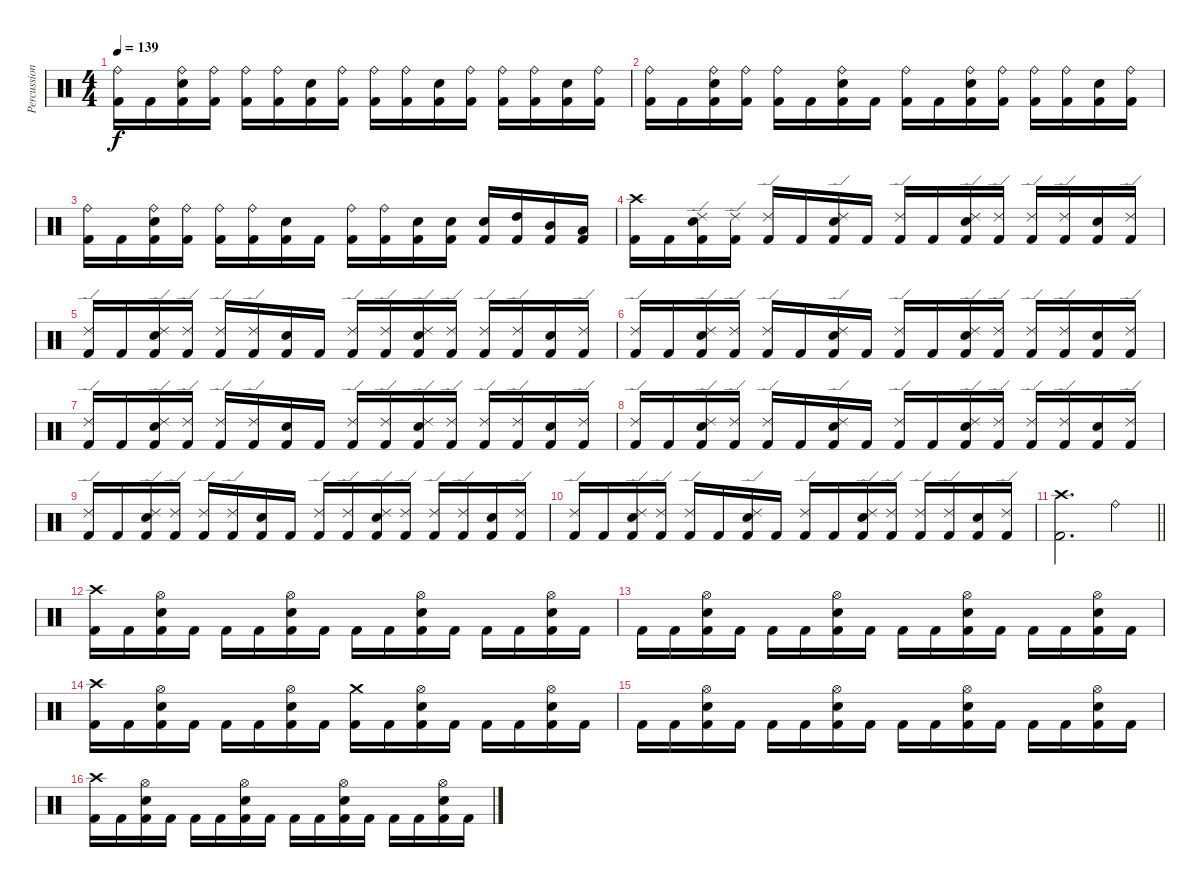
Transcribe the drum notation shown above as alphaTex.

\track ("Percussion" "Percussion") {instrument percussion}
\staff {score}
\articulation defaults
\ts (4 4)
\tempo 139
\clef neutral
\ks c
("Ride (bell)" "Kick (hit) 2").16{dy f} "Kick (hit) 2".16 ("Ride (bell)" "Electric Snare (hit)" "Kick (hit) 2").16 ("Ride (bell)" "Kick (hit) 2").16 ("Ride (bell)" "Kick (hit) 2").16 ("Ride (bell)" "Kick (hit) 2").16 ("Electric Snare (hit)" "Kick (hit) 2").16 ("Ride (bell)" "Kick (hit) 2").16 ("Ride (bell)" "Kick (hit) 2").16 ("Ride (bell)" "Kick (hit) 2").16 ("Electric Snare (hit)" "Kick (hit) 2").16 ("Ride (bell)" "Kick (hit) 2").16 ("Ride (bell)" "Kick (hit) 2").16 ("Ride (bell)" "Kick (hit) 2").16 ("Electric Snare (hit)" "Kick (hit) 2").16 ("Ride (bell)" "Kick (hit) 2").16 |
("Ride (bell)" "Kick (hit) 2").16 "Kick (hit) 2".16 ("Ride (bell)" "Electric Snare (hit)" "Kick (hit) 2").16 ("Ride (bell)" "Kick (hit) 2").16 ("Ride (bell)" "Kick (hit) 2").16 "Kick (hit) 2".16 ("Ride (bell)" "Electric Snare (hit)" "Kick (hit) 2").16 "Kick (hit) 2".16 ("Ride (bell)" "Kick (hit) 2").16 "Kick (hit) 2".16 ("Ride (bell)" "Electric Snare (hit)" "Kick (hit) 2").16 ("Ride (bell)" "Kick (hit) 2").16 ("Ride (bell)" "Kick (hit) 2").16 ("Ride (bell)" "Kick (hit) 2").16 ("Electric Snare (hit)" "Kick (hit) 2").16 ("Ride (bell)" "Kick (hit) 2").16 |
("Ride (bell)" "Kick (hit) 2").16 "Kick (hit) 2".16 ("Ride (bell)" "Electric Snare (hit)" "Kick (hit) 2").16 ("Ride (bell)" "Kick (hit) 2").16 ("Ride (bell)" "Kick (hit) 2").16 ("Ride (bell)" "Kick (hit) 2").16 ("Electric Snare (hit)" "Kick (hit) 2").16 "Kick (hit) 2".16 ("Ride (bell)" "Kick (hit) 2").16 ("Ride (bell)" "Kick (hit) 2").16 ("Electric Snare (hit)" "Kick (hit) 2").16 ("Electric Snare (hit)" "Kick (hit) 2").16 ("Electric Snare (hit)" "Kick (hit) 2").16 ("High Tom (hit)" "Kick (hit) 2").16 ("Mid Tom (hit)" "Kick (hit) 2").16 ("Low Tom (hit)" "Kick (hit) 2").16 |
("Crash high (hit)" "Kick (hit) 2").16 "Kick (hit) 2".16 ("Ride (edge) 2" "Electric Snare (hit)" "Kick (hit) 2").16 ("Ride (edge) 2" "Kick (hit) 2").16 ("Ride (edge) 2" "Kick (hit) 2").16 "Kick (hit) 2".16 ("Ride (edge) 2" "Electric Snare (hit)" "Kick (hit) 2").16 "Kick (hit) 2".16 ("Ride (edge) 2" "Kick (hit) 2").16 "Kick (hit) 2".16 ("Ride (edge) 2" "Electric Snare (hit)" "Kick (hit) 2").16 ("Ride (edge) 2" "Kick (hit) 2").16 ("Ride (edge) 2" "Kick (hit) 2").16 ("Ride (edge) 2" "Kick (hit) 2").16 ("Electric Snare (hit)" "Kick (hit) 2").16 ("Ride (edge) 2" "Kick (hit) 2").16 |
("Ride (edge) 2" "Kick (hit) 2").16 "Kick (hit) 2".16 ("Ride (edge) 2" "Electric Snare (hit)" "Kick (hit) 2").16 ("Ride (edge) 2" "Kick (hit) 2").16 ("Ride (edge) 2" "Kick (hit) 2").16 ("Ride (edge) 2" "Kick (hit) 2").16 ("Electric Snare (hit)" "Kick (hit) 2").16 "Kick (hit) 2".16 ("Ride (edge) 2" "Kick (hit) 2").16 ("Ride (edge) 2" "Kick (hit) 2").16 ("Ride (edge) 2" "Electric Snare (hit)" "Kick (hit) 2").16 ("Ride (edge) 2" "Kick (hit) 2").16 ("Ride (edge) 2" "Kick (hit) 2").16 ("Ride (edge) 2" "Kick (hit) 2").16 ("Electric Snare (hit)" "Kick (hit) 2").16 ("Ride (edge) 2" "Kick (hit) 2").16 |
("Ride (edge) 2" "Kick (hit) 2").16 "Kick (hit) 2".16 ("Ride (edge) 2" "Electric Snare (hit)" "Kick (hit) 2").16 ("Ride (edge) 2" "Kick (hit) 2").16 ("Ride (edge) 2" "Kick (hit) 2").16 "Kick (hit) 2".16 ("Ride (edge) 2" "Electric Snare (hit)" "Kick (hit) 2").16 "Kick (hit) 2".16 ("Ride (edge) 2" "Kick (hit) 2").16 "Kick (hit) 2".16 ("Ride (edge) 2" "Electric Snare (hit)" "Kick (hit) 2").16 ("Ride (edge) 2" "Kick (hit) 2").16 ("Ride (edge) 2" "Kick (hit) 2").16 ("Ride (edge) 2" "Kick (hit) 2").16 ("Electric Snare (hit)" "Kick (hit) 2").16 ("Ride (edge) 2" "Kick (hit) 2").16 |
("Ride (edge) 2" "Kick (hit) 2").16 "Kick (hit) 2".16 ("Ride (edge) 2" "Electric Snare (hit)" "Kick (hit) 2").16 ("Ride (edge) 2" "Kick (hit) 2").16 ("Ride (edge) 2" "Kick (hit) 2").16 ("Ride (edge) 2" "Kick (hit) 2").16 ("Electric Snare (hit)" "Kick (hit) 2").16 "Kick (hit) 2".16 ("Ride (edge) 2" "Kick (hit) 2").16 ("Ride (edge) 2" "Kick (hit) 2").16 ("Ride (edge) 2" "Electric Snare (hit)" "Kick (hit) 2").16 ("Ride (edge) 2" "Kick (hit) 2").16 ("Ride (edge) 2" "Kick (hit) 2").16 ("Ride (edge) 2" "Kick (hit) 2").16 ("Electric Snare (hit)" "Kick (hit) 2").16 ("Ride (edge) 2" "Kick (hit) 2").16 |
("Ride (edge) 2" "Kick (hit) 2").16 "Kick (hit) 2".16 ("Ride (edge) 2" "Electric Snare (hit)" "Kick (hit) 2").16 ("Ride (edge) 2" "Kick (hit) 2").16 ("Ride (edge) 2" "Kick (hit) 2").16 "Kick (hit) 2".16 ("Ride (edge) 2" "Electric Snare (hit)" "Kick (hit) 2").16 "Kick (hit) 2".16 ("Ride (edge) 2" "Kick (hit) 2").16 "Kick (hit) 2".16 ("Ride (edge) 2" "Electric Snare (hit)" "Kick (hit) 2").16 ("Ride (edge) 2" "Kick (hit) 2").16 ("Ride (edge) 2" "Kick (hit) 2").16 ("Ride (edge) 2" "Kick (hit) 2").16 ("Electric Snare (hit)" "Kick (hit) 2").16 ("Ride (edge) 2" "Kick (hit) 2").16 |
("Ride (edge) 2" "Kick (hit) 2").16 "Kick (hit) 2".16 ("Ride (edge) 2" "Electric Snare (hit)" "Kick (hit) 2").16 ("Ride (edge) 2" "Kick (hit) 2").16 ("Ride (edge) 2" "Kick (hit) 2").16 ("Ride (edge) 2" "Kick (hit) 2").16 ("Electric Snare (hit)" "Kick (hit) 2").16 "Kick (hit) 2".16 ("Ride (edge) 2" "Kick (hit) 2").16 ("Ride (edge) 2" "Kick (hit) 2").16 ("Ride (edge) 2" "Electric Snare (hit)" "Kick (hit) 2").16 ("Ride (edge) 2" "Kick (hit) 2").16 ("Ride (edge) 2" "Kick (hit) 2").16 ("Ride (edge) 2" "Kick (hit) 2").16 ("Electric Snare (hit)" "Kick (hit) 2").16 ("Ride (edge) 2" "Kick (hit) 2").16 |
("Ride (edge) 2" "Kick (hit) 2").16 "Kick (hit) 2".16 ("Ride (edge) 2" "Electric Snare (hit)" "Kick (hit) 2").16 ("Ride (edge) 2" "Kick (hit) 2").16 ("Ride (edge) 2" "Kick (hit) 2").16 "Kick (hit) 2".16 ("Ride (edge) 2" "Electric Snare (hit)" "Kick (hit) 2").16 "Kick (hit) 2".16 ("Ride (edge) 2" "Kick (hit) 2").16 "Kick (hit) 2".16 ("Ride (edge) 2" "Electric Snare (hit)" "Kick (hit) 2").16 ("Ride (edge) 2" "Kick (hit) 2").16 ("Ride (edge) 2" "Kick (hit) 2").16 ("Ride (edge) 2" "Kick (hit) 2").16 ("Electric Snare (hit)" "Kick (hit) 2").16 ("Ride (edge) 2" "Kick (hit) 2").16 |
\barLineRight lightlight
("Crash high (hit)" "Kick (hit) 2").2{d} "Ride (bell)".4 |
("Crash high (hit)" "Kick (hit) 2").16 "Kick (hit) 2".16 ("Hi-Hat (open)" "Electric Snare (hit)" "Kick (hit) 2").16 "Kick (hit) 2".16 "Kick (hit) 2".16 "Kick (hit) 2".16 ("Hi-Hat (open)" "Electric Snare (hit)" "Kick (hit) 2").16 "Kick (hit) 2".16 "Kick (hit) 2".16 "Kick (hit) 2".16 ("Hi-Hat (open)" "Electric Snare (hit)" "Kick (hit) 2").16 "Kick (hit) 2".16 "Kick (hit) 2".16 "Kick (hit) 2".16 ("Hi-Hat (open)" "Electric Snare (hit)" "Kick (hit) 2").16 "Kick (hit) 2".16 |
"Kick (hit) 2".16 "Kick (hit) 2".16 ("Hi-Hat (open)" "Electric Snare (hit)" "Kick (hit) 2").16 "Kick (hit) 2".16 "Kick (hit) 2".16 "Kick (hit) 2".16 ("Hi-Hat (open)" "Electric Snare (hit)" "Kick (hit) 2").16 "Kick (hit) 2".16 "Kick (hit) 2".16 "Kick (hit) 2".16 ("Hi-Hat (open)" "Electric Snare (hit)" "Kick (hit) 2").16 "Kick (hit) 2".16 "Kick (hit) 2".16 "Kick (hit) 2".16 ("Hi-Hat (open)" "Electric Snare (hit)" "Kick (hit) 2").16 "Kick (hit) 2".16 |
("Crash high (hit)" "Kick (hit) 2").16 "Kick (hit) 2".16 ("Hi-Hat (open)" "Electric Snare (hit)" "Kick (hit) 2").16 "Kick (hit) 2".16 "Kick (hit) 2".16 "Kick (hit) 2".16 ("Hi-Hat (open)" "Electric Snare (hit)" "Kick (hit) 2").16 "Kick (hit) 2".16 ("Crash medium (hit)" "Kick (hit) 2").16 "Kick (hit) 2".16 ("Hi-Hat (open)" "Electric Snare (hit)" "Kick (hit) 2").16 "Kick (hit) 2".16 "Kick (hit) 2".16 "Kick (hit) 2".16 ("Hi-Hat (open)" "Electric Snare (hit)" "Kick (hit) 2").16 "Kick (hit) 2".16 |
"Kick (hit) 2".16 "Kick (hit) 2".16 ("Hi-Hat (open)" "Electric Snare (hit)" "Kick (hit) 2").16 "Kick (hit) 2".16 "Kick (hit) 2".16 "Kick (hit) 2".16 ("Hi-Hat (open)" "Electric Snare (hit)" "Kick (hit) 2").16 "Kick (hit) 2".16 "Kick (hit) 2".16 "Kick (hit) 2".16 ("Hi-Hat (open)" "Electric Snare (hit)" "Kick (hit) 2").16 "Kick (hit) 2".16 "Kick (hit) 2".16 "Kick (hit) 2".16 ("Hi-Hat (open)" "Electric Snare (hit)" "Kick (hit) 2").16 "Kick (hit) 2".16 |
("Crash high (hit)" "Kick (hit) 2").16 "Kick (hit) 2".16 ("Hi-Hat (open)" "Electric Snare (hit)" "Kick (hit) 2").16 "Kick (hit) 2".16 "Kick (hit) 2".16 "Kick (hit) 2".16 ("Hi-Hat (open)" "Electric Snare (hit)" "Kick (hit) 2").16 "Kick (hit) 2".16 "Kick (hit) 2".16 "Kick (hit) 2".16 ("Hi-Hat (open)" "Electric Snare (hit)" "Kick (hit) 2").16 "Kick (hit) 2".16 "Kick (hit) 2".16 "Kick (hit) 2".16 ("Hi-Hat (open)" "Electric Snare (hit)" "Kick (hit) 2").16 "Kick (hit) 2".16
